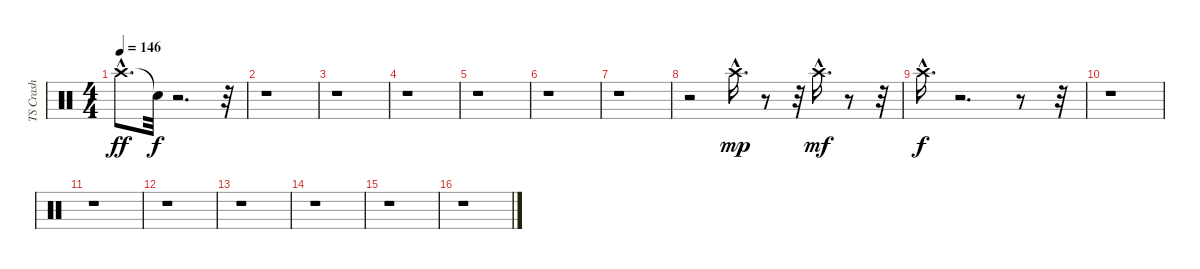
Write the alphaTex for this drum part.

\track ("TS Crash" "TS Crash") {instrument percussion}
\staff {score}
\articulation defaults
\ts (4 4)
\tempo 146
\clef neutral
\ks c "Crash high (hit)"{hac}.8{d dy ff} "Snare (hit)"{t}.32{dy f}
r.2{d} r.32 |
r.1 |
r.1 |
r.1 |
r.1 |
r.1 |
r.1 |
r.2 "Crash high (hit)"{hac}.16{d dy mp} r.8 r.32 "Crash high (hit)"{hac}.16{d dy mf} r.8 r.32 |
"Crash high (hit)"{hac}.16{d dy f} r.2{d} r.8 r.32 |
r.1 |
r.1 |
r.1 |
r.1 |
r.1 |
r.1 |
r.1
